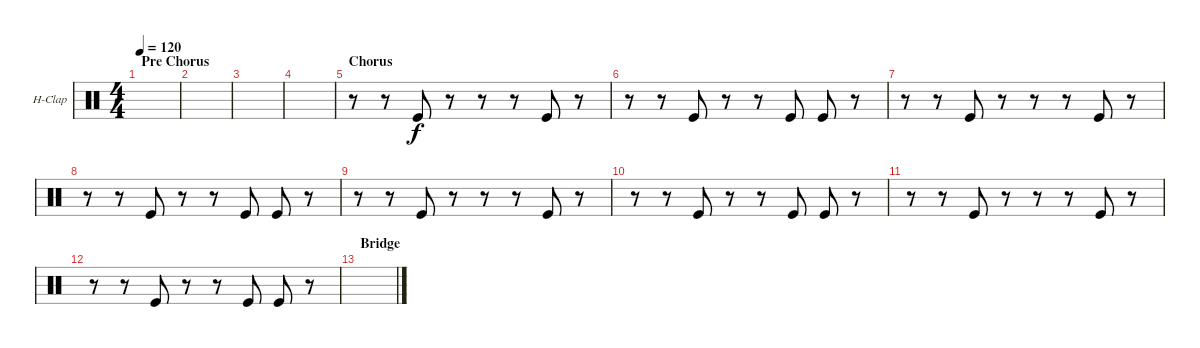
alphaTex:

\defaultSystemsLayout 4
\bracketExtendMode groupsimilarinstruments
\firstSystemTrackNameOrientation horizontal
\otherSystemsTrackNameOrientation horizontal
\track ("Hand Clap" "H-Clap") {instrument percussion}
\staff {score}
\articulation defaults
\ts (4 4)
\section ("" "Pre Chorus")
\tempo 120
\clef neutral
\ks c
|
|
|
|
\section ("" "Chorus")
r.8 r.8 "Kick (hit)".8 r.8 r.8 r.8 "Kick (hit)".8 r.8 |
r.8 r.8 "Kick (hit)".8 r.8 r.8 "Kick (hit)".8 "Kick (hit)".8 r.8 |
r.8 r.8 "Kick (hit)".8 r.8 r.8 r.8 "Kick (hit)".8 r.8 |
r.8 r.8 "Kick (hit)".8 r.8 r.8 "Kick (hit)".8 "Kick (hit)".8 r.8 |
r.8 r.8 "Kick (hit)".8 r.8 r.8 r.8 "Kick (hit)".8 r.8 |
r.8 r.8 "Kick (hit)".8 r.8 r.8 "Kick (hit)".8 "Kick (hit)".8 r.8 |
r.8 r.8 "Kick (hit)".8 r.8 r.8 r.8 "Kick (hit)".8 r.8 |
r.8 r.8 "Kick (hit)".8 r.8 r.8 "Kick (hit)".8 "Kick (hit)".8 r.8 |
\section ("" "Bridge")
